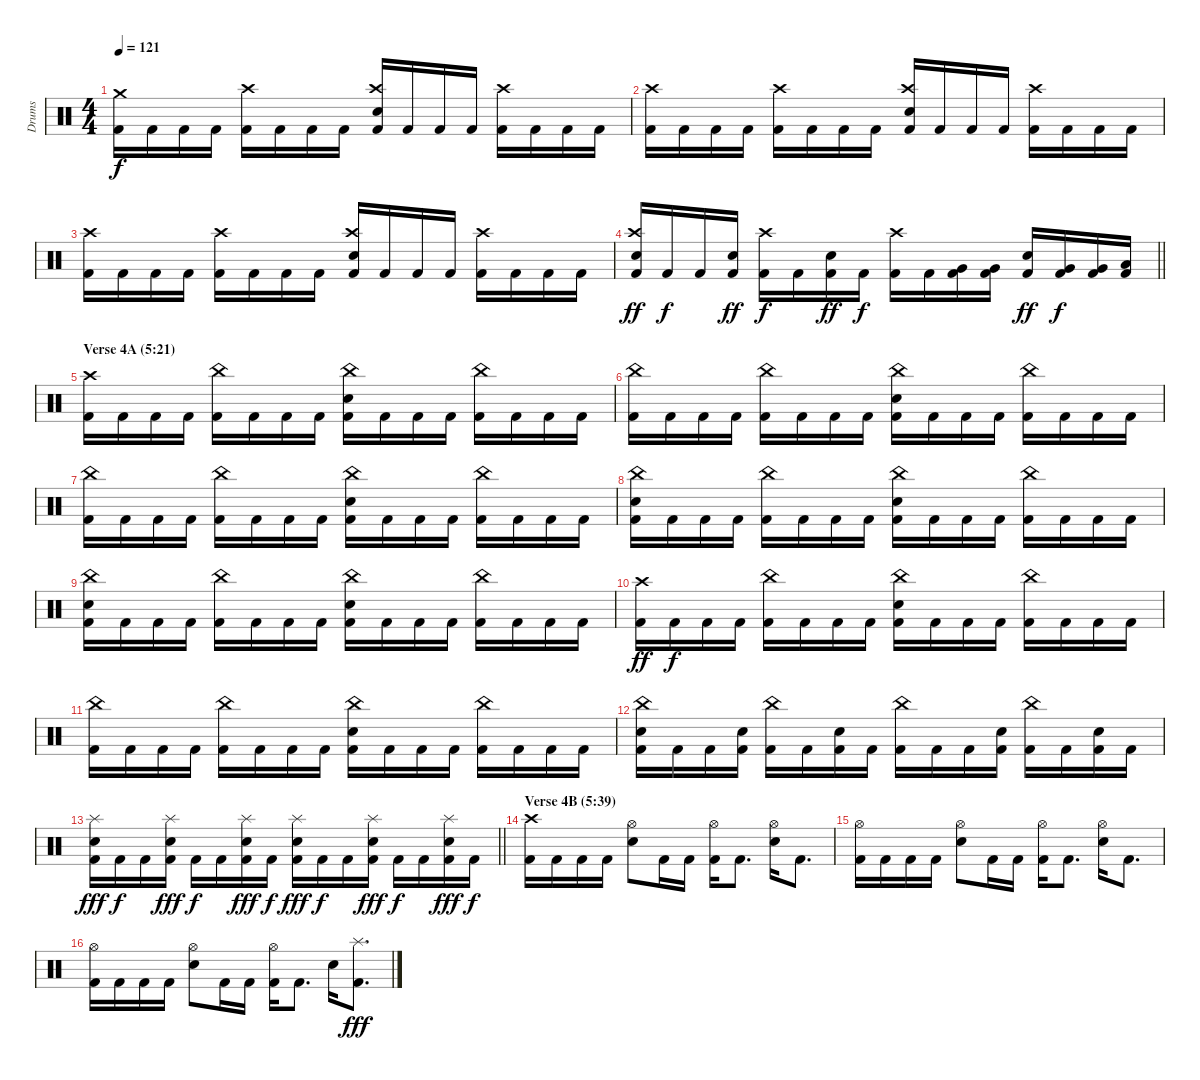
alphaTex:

\track ("Drums" "Drums") {instrument percussion}
\staff {score}
\articulation defaults
\ts (4 4)
\tempo 121
\clef neutral
\ks c
("Crash medium (hit)" "Kick (hit) 2").16{dy f} "Kick (hit) 2".16 "Kick (hit) 2".16 "Kick (hit) 2".16 ("Crash high (hit)" "Kick (hit) 2").16 "Kick (hit) 2".16 "Kick (hit) 2".16 "Kick (hit) 2".16 ("Crash high (hit)" "Electric Snare (hit)" "Kick (hit) 2").16 "Kick (hit) 2".16 "Kick (hit) 2".16 "Kick (hit) 2".16 ("Crash high (hit)" "Kick (hit) 2").16 "Kick (hit) 2".16 "Kick (hit) 2".16 "Kick (hit) 2".16 |
("Crash high (hit)" "Kick (hit) 2").16 "Kick (hit) 2".16 "Kick (hit) 2".16 "Kick (hit) 2".16 ("Crash high (hit)" "Kick (hit) 2").16 "Kick (hit) 2".16 "Kick (hit) 2".16 "Kick (hit) 2".16 ("Crash high (hit)" "Electric Snare (hit)" "Kick (hit) 2").16 "Kick (hit) 2".16 "Kick (hit) 2".16 "Kick (hit) 2".16 ("Crash high (hit)" "Kick (hit) 2").16 "Kick (hit) 2".16 "Kick (hit) 2".16 "Kick (hit) 2".16 |
("Crash high (hit)" "Kick (hit) 2").16 "Kick (hit) 2".16 "Kick (hit) 2".16 "Kick (hit) 2".16 ("Crash high (hit)" "Kick (hit) 2").16 "Kick (hit) 2".16 "Kick (hit) 2".16 "Kick (hit) 2".16 ("Crash high (hit)" "Electric Snare (hit)" "Kick (hit) 2").16 "Kick (hit) 2".16 "Kick (hit) 2".16 "Kick (hit) 2".16 ("Crash high (hit)" "Kick (hit) 2").16 "Kick (hit) 2".16 "Kick (hit) 2".16 "Kick (hit) 2".16 |
\barLineRight lightlight
("Crash high (hit)" "Electric Snare (hit)" "Kick (hit) 2").16{dy ff} "Kick (hit) 2".16{dy f} "Kick (hit) 2".16 ("Electric Snare (hit)" "Kick (hit) 2").16{dy ff} ("Crash high (hit)" "Kick (hit) 2").16{dy f} "Kick (hit) 2".16 ("Electric Snare (hit)" "Kick (hit) 2").16{dy ff} "Kick (hit) 2".16{dy f} ("Crash high (hit)" "Kick (hit) 2").16 "Kick (hit) 2".16 ("Very Low Tom (hit)" "Kick (hit) 2").16 ("Very Low Tom (hit)" "Kick (hit) 2").16 ("Electric Snare (hit)" "Kick (hit) 2").16{dy ff} ("Very Low Tom (hit)" "Kick (hit) 2").16{dy f} ("Very Low Tom (hit)" "Kick (hit) 2").16 ("Low Floor Tom (hit)" "Kick (hit) 2").16 |
\section ("" "Verse 4A (5:21)")
("Crash high (hit)" "Kick (hit) 2").16 "Kick (hit) 2".16 "Kick (hit) 2".16 "Kick (hit) 2".16 ("China (hit)" "Kick (hit) 2").16 "Kick (hit) 2".16 "Kick (hit) 2".16 "Kick (hit) 2".16 ("China (hit)" "Electric Snare (hit)" "Kick (hit) 2").16 "Kick (hit) 2".16 "Kick (hit) 2".16 "Kick (hit) 2".16 ("China (hit)" "Kick (hit) 2").16 "Kick (hit) 2".16 "Kick (hit) 2".16 "Kick (hit) 2".16 |
("China (hit)" "Kick (hit) 2").16 "Kick (hit) 2".16 "Kick (hit) 2".16 "Kick (hit) 2".16 ("China (hit)" "Kick (hit) 2").16 "Kick (hit) 2".16 "Kick (hit) 2".16 "Kick (hit) 2".16 ("China (hit)" "Electric Snare (hit)" "Kick (hit) 2").16 "Kick (hit) 2".16 "Kick (hit) 2".16 "Kick (hit) 2".16 ("China (hit)" "Kick (hit) 2").16 "Kick (hit) 2".16 "Kick (hit) 2".16 "Kick (hit) 2".16 |
("China (hit)" "Kick (hit) 2").16 "Kick (hit) 2".16 "Kick (hit) 2".16 "Kick (hit) 2".16 ("China (hit)" "Kick (hit) 2").16 "Kick (hit) 2".16 "Kick (hit) 2".16 "Kick (hit) 2".16 ("China (hit)" "Electric Snare (hit)" "Kick (hit) 2").16 "Kick (hit) 2".16 "Kick (hit) 2".16 "Kick (hit) 2".16 ("China (hit)" "Kick (hit) 2").16 "Kick (hit) 2".16 "Kick (hit) 2".16 "Kick (hit) 2".16 |
("China (hit)" "Electric Snare (hit)" "Kick (hit) 2").16 "Kick (hit) 2".16 "Kick (hit) 2".16 "Kick (hit) 2".16 ("China (hit)" "Kick (hit) 2").16 "Kick (hit) 2".16 "Kick (hit) 2".16 "Kick (hit) 2".16 ("China (hit)" "Electric Snare (hit)" "Kick (hit) 2").16 "Kick (hit) 2".16 "Kick (hit) 2".16 "Kick (hit) 2".16 ("China (hit)" "Kick (hit) 2").16 "Kick (hit) 2".16 "Kick (hit) 2".16 "Kick (hit) 2".16 |
("China (hit)" "Electric Snare (hit)" "Kick (hit) 2").16 "Kick (hit) 2".16 "Kick (hit) 2".16 "Kick (hit) 2".16 ("China (hit)" "Kick (hit) 2").16 "Kick (hit) 2".16 "Kick (hit) 2".16 "Kick (hit) 2".16 ("China (hit)" "Electric Snare (hit)" "Kick (hit) 2").16 "Kick (hit) 2".16 "Kick (hit) 2".16 "Kick (hit) 2".16 ("China (hit)" "Kick (hit) 2").16 "Kick (hit) 2".16 "Kick (hit) 2".16 "Kick (hit) 2".16 |
("Crash high (hit)" "Kick (hit) 2").16{dy ff} "Kick (hit) 2".16{dy f} "Kick (hit) 2".16 "Kick (hit) 2".16 ("China (hit)" "Kick (hit) 2").16 "Kick (hit) 2".16 "Kick (hit) 2".16 "Kick (hit) 2".16 ("China (hit)" "Electric Snare (hit)" "Kick (hit) 2").16 "Kick (hit) 2".16 "Kick (hit) 2".16 "Kick (hit) 2".16 ("China (hit)" "Kick (hit) 2").16 "Kick (hit) 2".16 "Kick (hit) 2".16 "Kick (hit) 2".16 |
("China (hit)" "Kick (hit) 2").16 "Kick (hit) 2".16 "Kick (hit) 2".16 "Kick (hit) 2".16 ("China (hit)" "Kick (hit) 2").16 "Kick (hit) 2".16 "Kick (hit) 2".16 "Kick (hit) 2".16 ("China (hit)" "Electric Snare (hit)" "Kick (hit) 2").16 "Kick (hit) 2".16 "Kick (hit) 2".16 "Kick (hit) 2".16 ("China (hit)" "Kick (hit) 2").16 "Kick (hit) 2".16 "Kick (hit) 2".16 "Kick (hit) 2".16 |
("China (hit)" "Electric Snare (hit)" "Kick (hit) 2").16 "Kick (hit) 2".16 "Kick (hit) 2".16 ("Electric Snare (hit)" "Kick (hit) 2").16 ("China (hit)" "Kick (hit) 2").16 "Kick (hit) 2".16 ("Electric Snare (hit)" "Kick (hit) 2").16 "Kick (hit) 2".16 ("China (hit)" "Kick (hit) 2").16 "Kick (hit) 2".16 "Kick (hit) 2".16 ("Electric Snare (hit)" "Kick (hit) 2").16 ("China (hit)" "Kick (hit) 2").16 "Kick (hit) 2".16 ("Electric Snare (hit)" "Kick (hit) 2").16 "Kick (hit) 2".16 |
\barLineRight lightlight
("Splash (hit)" "Electric Snare (hit)" "Kick (hit) 2").16{dy fff} "Kick (hit) 2".16{dy f} "Kick (hit) 2".16 ("Splash (hit)" "Electric Snare (hit)" "Kick (hit) 2").16{dy fff} "Kick (hit) 2".16{dy f} "Kick (hit) 2".16 ("Splash (hit)" "Electric Snare (hit)" "Kick (hit) 2").16{dy fff} "Kick (hit) 2".16{dy f} ("Splash (hit)" "Electric Snare (hit)" "Kick (hit) 2").16{dy fff} "Kick (hit) 2".16{dy f} "Kick (hit) 2".16 ("Splash (hit)" "Electric Snare (hit)" "Kick (hit) 2").16{dy fff} "Kick (hit) 2".16{dy f} "Kick (hit) 2".16 ("Splash (hit)" "Electric Snare (hit)" "Kick (hit) 2").16{dy fff} "Kick (hit) 2".16{dy f} |
\section ("" "Verse 4B (5:39)")
("Crash high (hit)" "Kick (hit) 2").16 "Kick (hit) 2".16 "Kick (hit) 2".16 "Kick (hit) 2".16 ("Hi-Hat (open)" "Electric Snare (hit)").8 "Kick (hit) 2".16 "Kick (hit) 2".16 ("Hi-Hat (open)" "Kick (hit) 2").16 "Kick (hit) 2".8{d} ("Hi-Hat (open)" "Electric Snare (hit)").16 "Kick (hit) 2".8{d} |
("Hi-Hat (open)" "Kick (hit) 2").16 "Kick (hit) 2".16 "Kick (hit) 2".16 "Kick (hit) 2".16 ("Hi-Hat (open)" "Electric Snare (hit)").8 "Kick (hit) 2".16 "Kick (hit) 2".16 ("Hi-Hat (open)" "Kick (hit) 2").16 "Kick (hit) 2".8{d} ("Hi-Hat (open)" "Electric Snare (hit)").16 "Kick (hit) 2".8{d} |
("Hi-Hat (open)" "Kick (hit) 2").16 "Kick (hit) 2".16 "Kick (hit) 2".16 "Kick (hit) 2".16 ("Hi-Hat (open)" "Electric Snare (hit)").8 "Kick (hit) 2".16 "Kick (hit) 2".16 ("Hi-Hat (open)" "Kick (hit) 2").16 "Kick (hit) 2".8{d} "Electric Snare (hit)".16 ("Splash (hit)" "Kick (hit) 2").8{d dy fff}
